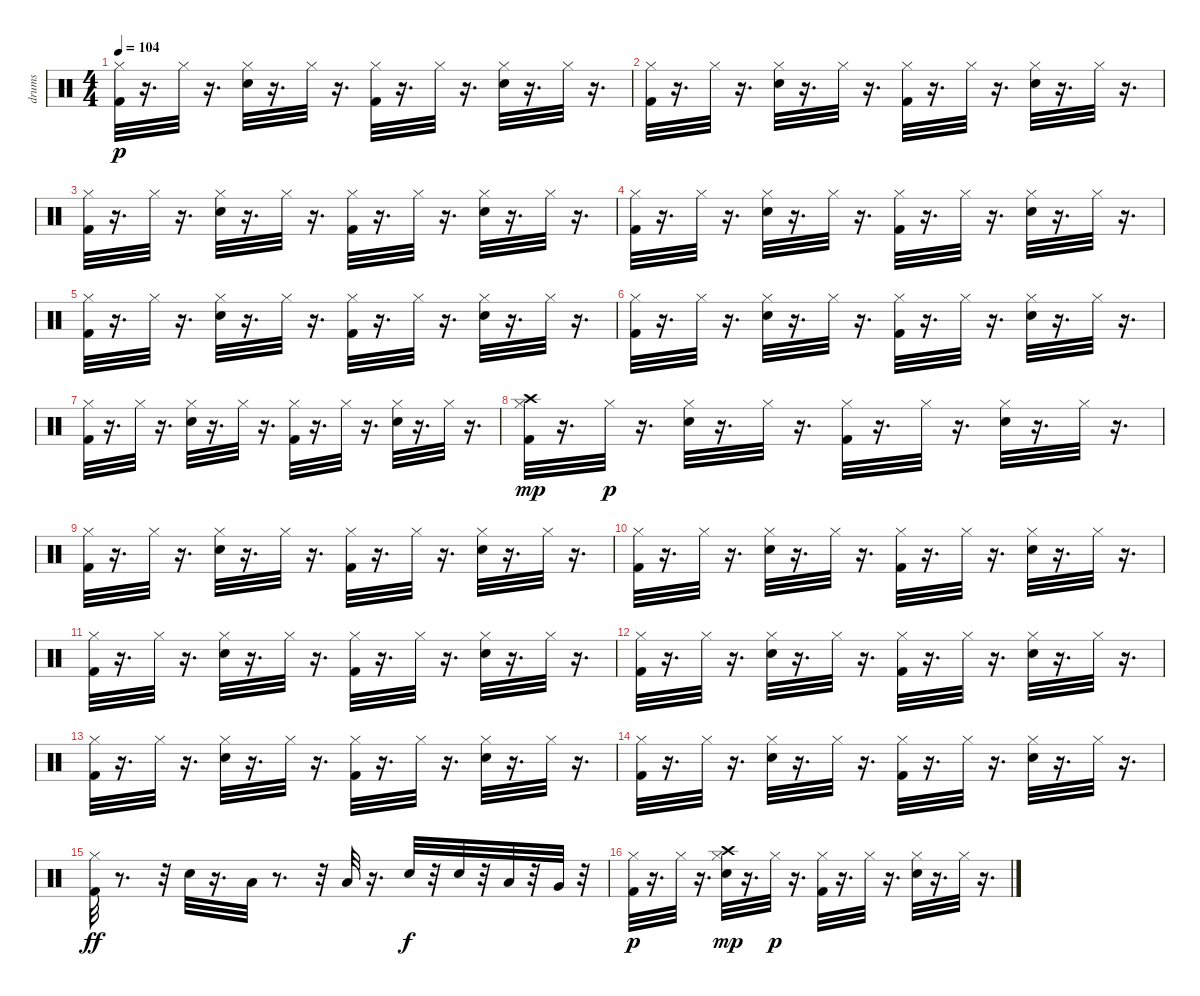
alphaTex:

\track ("drums" "drums") {instrument percussion}
\staff {score}
\articulation defaults
\ts (4 4)
\tempo 104
\clef neutral
\ks c
("Kick (hit) 2" "Hi-Hat (closed)").32{dy p} r.16{d} "Hi-Hat (closed)".32 r.16{d} ("Snare (hit) 2" "Hi-Hat (closed)").32 r.16{d} "Hi-Hat (closed)".32 r.16{d} ("Kick (hit) 2" "Hi-Hat (closed)").32 r.16{d} "Hi-Hat (closed)".32 r.16{d} ("Snare (hit) 2" "Hi-Hat (closed)").32 r.16{d} "Hi-Hat (closed)".32 r.16{d} |
("Kick (hit) 2" "Hi-Hat (closed)").32 r.16{d} "Hi-Hat (closed)".32 r.16{d} ("Snare (hit) 2" "Hi-Hat (closed)").32 r.16{d} "Hi-Hat (closed)".32 r.16{d} ("Kick (hit) 2" "Hi-Hat (closed)").32 r.16{d} "Hi-Hat (closed)".32 r.16{d} ("Snare (hit) 2" "Hi-Hat (closed)").32 r.16{d} "Hi-Hat (closed)".32 r.16{d} |
("Kick (hit) 2" "Hi-Hat (closed)").32 r.16{d} "Hi-Hat (closed)".32 r.16{d} ("Snare (hit) 2" "Hi-Hat (closed)").32 r.16{d} "Hi-Hat (closed)".32 r.16{d} ("Kick (hit) 2" "Hi-Hat (closed)").32 r.16{d} "Hi-Hat (closed)".32 r.16{d} ("Snare (hit) 2" "Hi-Hat (closed)").32 r.16{d} "Hi-Hat (closed)".32 r.16{d} |
("Kick (hit) 2" "Hi-Hat (closed)").32 r.16{d} "Hi-Hat (closed)".32 r.16{d} ("Snare (hit) 2" "Hi-Hat (closed)").32 r.16{d} "Hi-Hat (closed)".32 r.16{d} ("Kick (hit) 2" "Hi-Hat (closed)").32 r.16{d} "Hi-Hat (closed)".32 r.16{d} ("Snare (hit) 2" "Hi-Hat (closed)").32 r.16{d} "Hi-Hat (closed)".32 r.16{d} |
("Kick (hit) 2" "Hi-Hat (closed)").32 r.16{d} "Hi-Hat (closed)".32 r.16{d} ("Snare (hit) 2" "Hi-Hat (closed)").32 r.16{d} "Hi-Hat (closed)".32 r.16{d} ("Kick (hit) 2" "Hi-Hat (closed)").32 r.16{d} "Hi-Hat (closed)".32 r.16{d} ("Snare (hit) 2" "Hi-Hat (closed)").32 r.16{d} "Hi-Hat (closed)".32 r.16{d} |
("Kick (hit) 2" "Hi-Hat (closed)").32 r.16{d} "Hi-Hat (closed)".32 r.16{d} ("Snare (hit) 2" "Hi-Hat (closed)").32 r.16{d} "Hi-Hat (closed)".32 r.16{d} ("Kick (hit) 2" "Hi-Hat (closed)").32 r.16{d} "Hi-Hat (closed)".32 r.16{d} ("Snare (hit) 2" "Hi-Hat (closed)").32 r.16{d} "Hi-Hat (closed)".32 r.16{d} |
("Kick (hit) 2" "Hi-Hat (closed)").32 r.16{d} "Hi-Hat (closed)".32 r.16{d} ("Snare (hit) 2" "Hi-Hat (closed)").32 r.16{d} "Hi-Hat (closed)".32 r.16{d} ("Kick (hit) 2" "Hi-Hat (closed)").32 r.16{d} "Hi-Hat (closed)".32 r.16{d} ("Snare (hit) 2" "Hi-Hat (closed)").32 r.16{d} "Hi-Hat (closed)".32 r.16{d} |
("Kick (hit) 2" "Hi-Hat (closed)" "Crash high (hit)").32{dy mp} r.16{d} "Hi-Hat (closed)".32{dy p} r.16{d} ("Snare (hit) 2" "Hi-Hat (closed)").32 r.16{d} "Hi-Hat (closed)".32 r.16{d} ("Kick (hit) 2" "Hi-Hat (closed)").32 r.16{d} "Hi-Hat (closed)".32 r.16{d} ("Snare (hit) 2" "Hi-Hat (closed)").32 r.16{d} "Hi-Hat (closed)".32 r.16{d} |
("Kick (hit) 2" "Hi-Hat (closed)").32 r.16{d} "Hi-Hat (closed)".32 r.16{d} ("Snare (hit) 2" "Hi-Hat (closed)").32 r.16{d} "Hi-Hat (closed)".32 r.16{d} ("Kick (hit) 2" "Hi-Hat (closed)").32 r.16{d} "Hi-Hat (closed)".32 r.16{d} ("Snare (hit) 2" "Hi-Hat (closed)").32 r.16{d} "Hi-Hat (closed)".32 r.16{d} |
("Kick (hit) 2" "Hi-Hat (closed)").32 r.16{d} "Hi-Hat (closed)".32 r.16{d} ("Snare (hit) 2" "Hi-Hat (closed)").32 r.16{d} "Hi-Hat (closed)".32 r.16{d} ("Kick (hit) 2" "Hi-Hat (closed)").32 r.16{d} "Hi-Hat (closed)".32 r.16{d} ("Snare (hit) 2" "Hi-Hat (closed)").32 r.16{d} "Hi-Hat (closed)".32 r.16{d} |
("Kick (hit) 2" "Hi-Hat (closed)").32 r.16{d} "Hi-Hat (closed)".32 r.16{d} ("Snare (hit) 2" "Hi-Hat (closed)").32 r.16{d} "Hi-Hat (closed)".32 r.16{d} ("Kick (hit) 2" "Hi-Hat (closed)").32 r.16{d} "Hi-Hat (closed)".32 r.16{d} ("Snare (hit) 2" "Hi-Hat (closed)").32 r.16{d} "Hi-Hat (closed)".32 r.16{d} |
("Kick (hit) 2" "Hi-Hat (closed)").32 r.16{d} "Hi-Hat (closed)".32 r.16{d} ("Snare (hit) 2" "Hi-Hat (closed)").32 r.16{d} "Hi-Hat (closed)".32 r.16{d} ("Kick (hit) 2" "Hi-Hat (closed)").32 r.16{d} "Hi-Hat (closed)".32 r.16{d} ("Snare (hit) 2" "Hi-Hat (closed)").32 r.16{d} "Hi-Hat (closed)".32 r.16{d} |
("Kick (hit) 2" "Hi-Hat (closed)").32 r.16{d} "Hi-Hat (closed)".32 r.16{d} ("Snare (hit) 2" "Hi-Hat (closed)").32 r.16{d} "Hi-Hat (closed)".32 r.16{d} ("Kick (hit) 2" "Hi-Hat (closed)").32 r.16{d} "Hi-Hat (closed)".32 r.16{d} ("Snare (hit) 2" "Hi-Hat (closed)").32 r.16{d} "Hi-Hat (closed)".32 r.16{d} |
("Kick (hit) 2" "Hi-Hat (closed)").32 r.16{d} "Hi-Hat (closed)".32 r.16{d} ("Snare (hit) 2" "Hi-Hat (closed)").32 r.16{d} "Hi-Hat (closed)".32 r.16{d} ("Kick (hit) 2" "Hi-Hat (closed)").32 r.16{d} "Hi-Hat (closed)".32 r.16{d} ("Snare (hit) 2" "Hi-Hat (closed)").32 r.16{d} "Hi-Hat (closed)".32 r.16{d} |
("Hi-Hat (closed)" "Kick (hit) 2").32{dy ff} r.8{d} r.32 "Snare (hit) 2".32 r.16{d} "Low Tom (hit)".32 r.8{d} r.32 "Low Tom (hit)".32 r.16{d} "Snare (hit) 2".32{dy f} r.32 "Snare (hit) 2".32 r.32 "Low Tom (hit)".32 r.32 "Very Low Tom (hit)".32 r.32 |
("Kick (hit) 2" "Hi-Hat (closed)").32{dy p} r.16{d} "Hi-Hat (closed)".32 r.16{d} ("Snare (hit) 2" "Hi-Hat (closed)" "Crash high (hit)").32{dy mp} r.16{d} "Hi-Hat (closed)".32{dy p} r.16{d} ("Kick (hit) 2" "Hi-Hat (closed)").32 r.16{d} "Hi-Hat (closed)".32 r.16{d} ("Snare (hit) 2" "Hi-Hat (closed)").32 r.16{d} "Hi-Hat (closed)".32 r.16{d}
